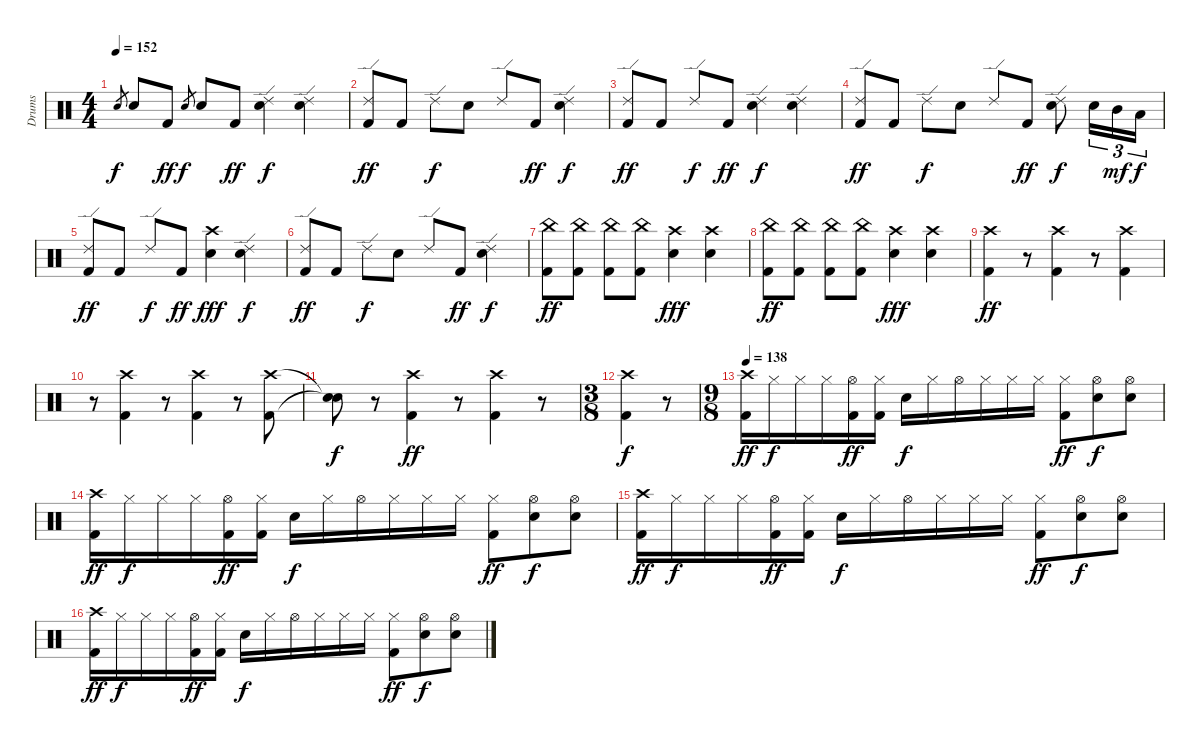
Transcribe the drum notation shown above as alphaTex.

\track ("Drums" "Drums") {instrument percussion}
\staff {score}
\articulation defaults
\ts (4 4)
\tempo 152
\clef neutral
\ks c "Snare (hit) 2".8{gr dy f} "Snare (hit) 2".8 "Kick (hit) 2".8{dy ff} "Snare (hit) 2".8{gr dy f} "Snare (hit) 2".8 "Kick (hit) 2".8{dy ff}
("Ride (edge) 2" "Snare (hit) 2").4{dy f} ("Ride (edge) 2" "Snare (hit) 2").4 |
("Ride (edge) 2" "Kick (hit) 2").8{dy ff} "Kick (hit) 2".8 "Ride (edge) 2".8{dy f} "Snare (hit) 2".8 "Ride (edge) 2".8 "Kick (hit) 2".8{dy ff} ("Ride (edge) 2" "Snare (hit) 2").4{dy f} |
("Ride (edge) 2" "Kick (hit) 2").8{dy ff} "Kick (hit) 2".8 "Ride (edge) 2".8{dy f} "Kick (hit) 2".8{dy ff} ("Ride (edge) 2" "Snare (hit) 2").4{dy f} ("Ride (edge) 2" "Snare (hit) 2").4 |
("Ride (edge) 2" "Kick (hit) 2").8{dy ff} "Kick (hit) 2".8 "Ride (edge) 2".8{dy f} "Snare (hit) 2".8 "Ride (edge) 2".8 "Kick (hit) 2".8{dy ff} ("Ride (edge) 2" "Snare (hit) 2").8{dy f} "Snare (hit) 2".16{tu (3 2)} "Mid Tom (hit)".16{tu (3 2) dy mf} "Low Floor Tom (hit)".16{tu (3 2) dy f} |
("Ride (edge) 2" "Kick (hit) 2").8{dy ff} "Kick (hit) 2".8 "Ride (edge) 2".8{dy f} "Kick (hit) 2".8{dy ff} ("Crash high (hit)" "Snare (hit) 2").4{dy fff} ("Ride (edge) 2" "Snare (hit) 2").4{dy f} |
("Ride (edge) 2" "Kick (hit) 2").8{dy ff} "Kick (hit) 2".8 "Ride (edge) 2".8{dy f} "Snare (hit) 2".8 "Ride (edge) 2".8 "Kick (hit) 2".8{dy ff} ("Ride (edge) 2" "Snare (hit) 2").4{dy f} |
("China (hit)" "Kick (hit) 2").8{dy ff} ("China (hit)" "Kick (hit) 2").8 ("China (hit)" "Kick (hit) 2").8 ("China (hit)" "Kick (hit) 2").8 ("Crash high (hit)" "Snare (hit) 2").4{dy fff} ("Crash high (hit)" "Snare (hit) 2").4 |
("China (hit)" "Kick (hit) 2").8{dy ff} ("China (hit)" "Kick (hit) 2").8 ("China (hit)" "Kick (hit) 2").8 ("China (hit)" "Kick (hit) 2").8 ("Crash high (hit)" "Snare (hit) 2").4{dy fff} ("Crash high (hit)" "Snare (hit) 2").4 |
("Crash high (hit)" "Kick (hit) 2").4{dy ff} r.8 ("Crash high (hit)" "Kick (hit) 2").4 r.8 ("Crash high (hit)" "Kick (hit) 2").4 |
r.8 ("Crash high (hit)" "Kick (hit) 2").4 r.8 ("Crash high (hit)" "Kick (hit) 2").4 r.8 ("Crash high (hit)" "Kick (hit) 2").8 |
("Snare (hit)"{t} "Snare (hit)"{t}).8{dy f} r.8 ("Crash high (hit)" "Kick (hit) 2").4{dy ff} r.8 ("Crash high (hit)" "Kick (hit) 2").4 r.8 |
\ts (3 8)
("Crash high (hit)" "Kick (hit) 2").4{dy f} r.8 |
\ts (9 8)
\tempo 138
("Crash high (hit)" "Kick (hit) 2").16{dy ff} "Hi-Hat (closed)".16{dy f} "Hi-Hat (closed)".16 "Hi-Hat (closed)".16 ("Hi-Hat (open)" "Kick (hit) 2").16{dy ff} ("Hi-Hat (closed)" "Kick (hit) 2").16 "Snare (hit) 2".16{dy f} "Hi-Hat (closed)".16 "Hi-Hat (open)".16 "Hi-Hat (closed)".16 "Hi-Hat (closed)".16 "Hi-Hat (closed)".16 ("Hi-Hat (closed)" "Kick (hit) 2").8{dy ff} ("Hi-Hat (open)" "Snare (hit) 2").8{dy f} ("Hi-Hat (open)" "Snare (hit) 2").8 |
("Crash high (hit)" "Kick (hit) 2").16{dy ff} "Hi-Hat (closed)".16{dy f} "Hi-Hat (closed)".16 "Hi-Hat (closed)".16 ("Hi-Hat (open)" "Kick (hit) 2").16{dy ff} ("Hi-Hat (closed)" "Kick (hit) 2").16 "Snare (hit) 2".16{dy f} "Hi-Hat (closed)".16 "Hi-Hat (open)".16 "Hi-Hat (closed)".16 "Hi-Hat (closed)".16 "Hi-Hat (closed)".16 ("Hi-Hat (closed)" "Kick (hit) 2").8{dy ff} ("Hi-Hat (open)" "Snare (hit) 2").8{dy f} ("Hi-Hat (open)" "Snare (hit) 2").8 |
("Crash high (hit)" "Kick (hit) 2").16{dy ff} "Hi-Hat (closed)".16{dy f} "Hi-Hat (closed)".16 "Hi-Hat (closed)".16 ("Hi-Hat (open)" "Kick (hit) 2").16{dy ff} ("Hi-Hat (closed)" "Kick (hit) 2").16 "Snare (hit) 2".16{dy f} "Hi-Hat (closed)".16 "Hi-Hat (open)".16 "Hi-Hat (closed)".16 "Hi-Hat (closed)".16 "Hi-Hat (closed)".16 ("Hi-Hat (closed)" "Kick (hit) 2").8{dy ff} ("Hi-Hat (open)" "Snare (hit) 2").8{dy f} ("Hi-Hat (open)" "Snare (hit) 2").8 |
("Crash high (hit)" "Kick (hit) 2").16{dy ff} "Hi-Hat (closed)".16{dy f} "Hi-Hat (closed)".16 "Hi-Hat (closed)".16 ("Hi-Hat (open)" "Kick (hit) 2").16{dy ff} ("Hi-Hat (closed)" "Kick (hit) 2").16 "Snare (hit) 2".16{dy f} "Hi-Hat (closed)".16 "Hi-Hat (open)".16 "Hi-Hat (closed)".16 "Hi-Hat (closed)".16 "Hi-Hat (closed)".16 ("Hi-Hat (closed)" "Kick (hit) 2").8{dy ff} ("Hi-Hat (open)" "Snare (hit) 2").8{dy f} ("Hi-Hat (open)" "Snare (hit) 2").8
